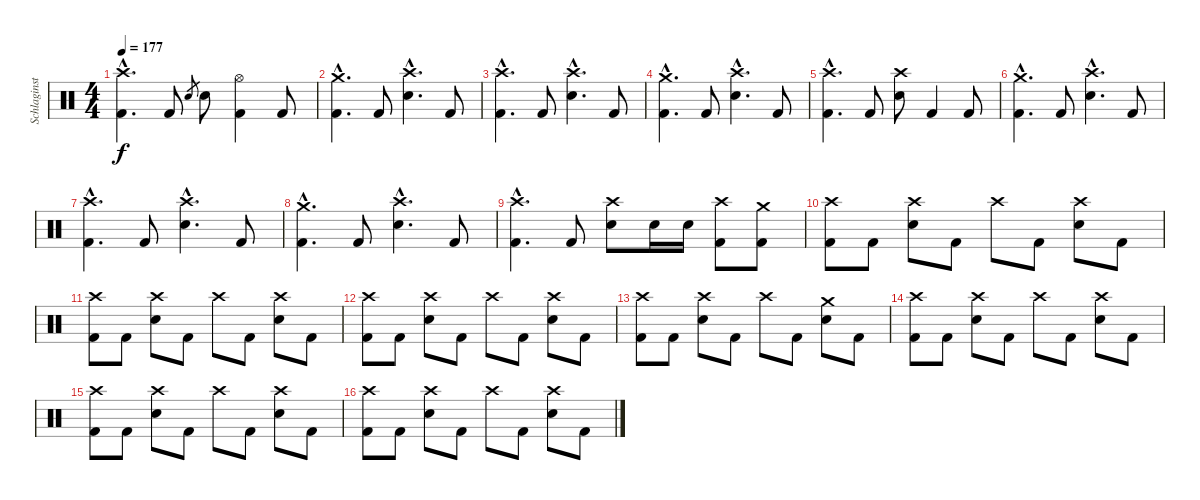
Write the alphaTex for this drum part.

\track ("Schlaginstrumente - Auswahl" "Schlaginst") {instrument percussion}
\staff {score}
\articulation defaults
\ts (4 4)
\tempo 177
\clef neutral
\ks c
("Crash high (hit)"{hac} "Kick (hit) 2"{hac}).4{d dy f} "Kick (hit) 2".8 "Snare (hit) 2".8{gr} "Snare (hit) 2".8 ("Hi-Hat (open)" "Kick (hit) 2").4 "Kick (hit) 2".8 |
("Crash medium (hit)"{hac} "Kick (hit) 2"{hac}).4{d} "Kick (hit) 2".8 ("Crash high (hit)"{hac} "Snare (hit) 2"{hac}).4{d} "Kick (hit) 2".8 |
("Crash high (hit)"{hac} "Kick (hit) 2"{hac}).4{d} "Kick (hit) 2".8 ("Crash high (hit)"{hac} "Snare (hit) 2"{hac}).4{d} "Kick (hit) 2".8 |
("Crash medium (hit)"{hac} "Kick (hit) 2"{hac}).4{d} "Kick (hit) 2".8 ("Crash high (hit)"{hac} "Snare (hit) 2"{hac}).4{d} "Kick (hit) 2".8 |
("Crash high (hit)"{hac} "Kick (hit) 2"{hac}).4{d} "Kick (hit) 2".8 ("Crash high (hit)" "Snare (hit) 2").8 "Kick (hit) 2".4 "Kick (hit) 2".8 |
("Crash medium (hit)"{hac} "Kick (hit) 2"{hac}).4{d} "Kick (hit) 2".8 ("Crash high (hit)"{hac} "Snare (hit) 2"{hac}).4{d} "Kick (hit) 2".8 |
("Crash high (hit)"{hac} "Kick (hit) 2"{hac}).4{d} "Kick (hit) 2".8 ("Crash high (hit)"{hac} "Snare (hit) 2"{hac}).4{d} "Kick (hit) 2".8 |
("Crash medium (hit)"{hac} "Kick (hit) 2"{hac}).4{d} "Kick (hit) 2".8 ("Crash high (hit)"{hac} "Snare (hit) 2"{hac}).4{d} "Kick (hit) 2".8 |
("Crash high (hit)"{hac} "Kick (hit) 2"{hac}).4{d} "Kick (hit) 2".8 ("Crash high (hit)" "Snare (hit) 2").8 "Snare (hit) 2".16 "Snare (hit) 2".16 ("Crash high (hit)" "Kick (hit) 2").8 ("Crash medium (hit)" "Kick (hit) 2").8 |
("Crash high (hit)" "Kick (hit) 2").8 "Kick (hit) 2".8 ("Crash high (hit)" "Snare (hit) 2").8 "Kick (hit) 2".8 "Crash high (hit)".8 "Kick (hit) 2".8 ("Crash high (hit)" "Snare (hit) 2").8 "Kick (hit) 2".8 |
("Crash high (hit)" "Kick (hit) 2").8 "Kick (hit) 2".8 ("Crash high (hit)" "Snare (hit) 2").8 "Kick (hit) 2".8 "Crash high (hit)".8 "Kick (hit) 2".8 ("Crash high (hit)" "Snare (hit) 2").8 "Kick (hit) 2".8 |
("Crash high (hit)" "Kick (hit) 2").8 "Kick (hit) 2".8 ("Crash high (hit)" "Snare (hit) 2").8 "Kick (hit) 2".8 "Crash high (hit)".8 "Kick (hit) 2".8 ("Crash high (hit)" "Snare (hit) 2").8 "Kick (hit) 2".8 |
("Crash high (hit)" "Kick (hit) 2").8 "Kick (hit) 2".8 ("Crash high (hit)" "Snare (hit) 2").8 "Kick (hit) 2".8 "Crash high (hit)".8 "Kick (hit) 2".8 ("Crash medium (hit)" "Snare (hit) 2").8 "Kick (hit) 2".8 |
("Crash high (hit)" "Kick (hit) 2").8 "Kick (hit) 2".8 ("Crash high (hit)" "Snare (hit) 2").8 "Kick (hit) 2".8 "Crash high (hit)".8 "Kick (hit) 2".8 ("Crash high (hit)" "Snare (hit) 2").8 "Kick (hit) 2".8 |
("Crash high (hit)" "Kick (hit) 2").8 "Kick (hit) 2".8 ("Crash high (hit)" "Snare (hit) 2").8 "Kick (hit) 2".8 "Crash high (hit)".8 "Kick (hit) 2".8 ("Crash high (hit)" "Snare (hit) 2").8 "Kick (hit) 2".8 |
("Crash high (hit)" "Kick (hit) 2").8 "Kick (hit) 2".8 ("Crash high (hit)" "Snare (hit) 2").8 "Kick (hit) 2".8 "Crash high (hit)".8 "Kick (hit) 2".8 ("Crash high (hit)" "Snare (hit) 2").8 "Kick (hit) 2".8
